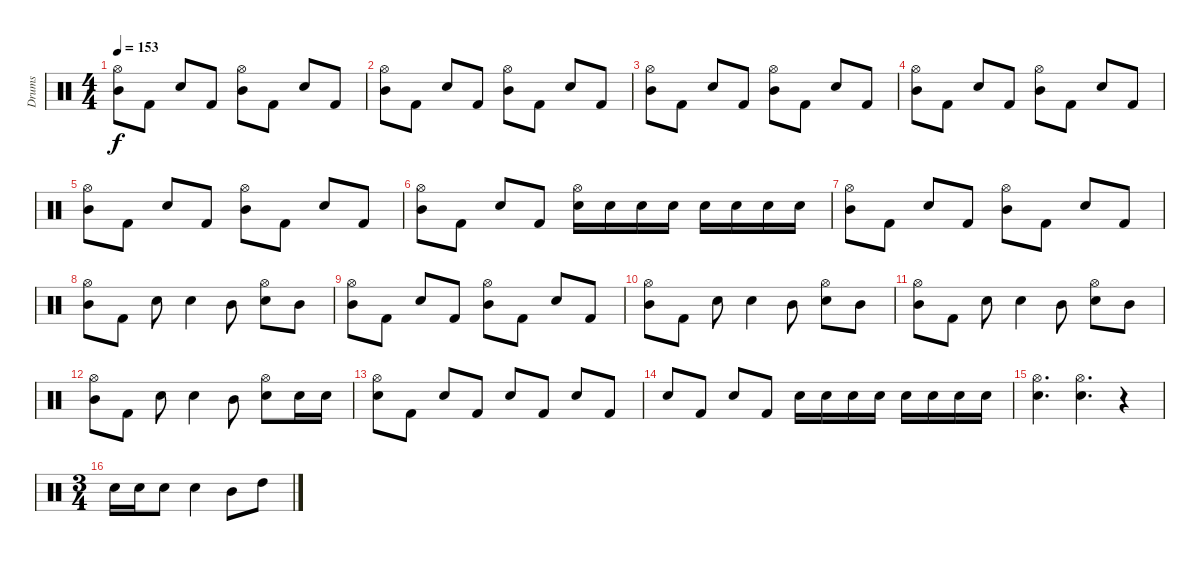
\track ("Drums" "Drums") {instrument percussion}
\staff {score}
\articulation defaults
\ts (4 4)
\tempo 153
\clef neutral
\ks c
("Hi-Hat (open)" "Mid Tom (hit)").8{dy f} "Kick (hit) 2".8 "Electric Snare (hit)".8 "Kick (hit) 2".8 ("Hi-Hat (open)" "Mid Tom (hit)").8 "Kick (hit) 2".8 "Electric Snare (hit)".8 "Kick (hit) 2".8 |
("Hi-Hat (open)" "Mid Tom (hit)").8 "Kick (hit) 2".8 "Electric Snare (hit)".8 "Kick (hit) 2".8 ("Hi-Hat (open)" "Mid Tom (hit)").8 "Kick (hit) 2".8 "Electric Snare (hit)".8 "Kick (hit) 2".8 |
("Hi-Hat (open)" "Mid Tom (hit)").8 "Kick (hit) 2".8 "Electric Snare (hit)".8 "Kick (hit) 2".8 ("Hi-Hat (open)" "Mid Tom (hit)").8 "Kick (hit) 2".8 "Electric Snare (hit)".8 "Kick (hit) 2".8 |
("Hi-Hat (open)" "Mid Tom (hit)").8 "Kick (hit) 2".8 "Electric Snare (hit)".8 "Kick (hit) 2".8 ("Hi-Hat (open)" "Mid Tom (hit)").8 "Kick (hit) 2".8 "Electric Snare (hit)".8 "Kick (hit) 2".8 |
("Hi-Hat (open)" "Mid Tom (hit)").8 "Kick (hit) 2".8 "Electric Snare (hit)".8 "Kick (hit) 2".8 ("Hi-Hat (open)" "Mid Tom (hit)").8 "Kick (hit) 2".8 "Electric Snare (hit)".8 "Kick (hit) 2".8 |
("Hi-Hat (open)" "Mid Tom (hit)").8 "Kick (hit) 2".8 "Electric Snare (hit)".8 "Kick (hit) 2".8 ("Hi-Hat (open)" "Electric Snare (hit)").16 "Electric Snare (hit)".16 "Electric Snare (hit)".16 "Electric Snare (hit)".16 "Electric Snare (hit)".16 "Electric Snare (hit)".16 "Electric Snare (hit)".16 "Electric Snare (hit)".16 |
("Hi-Hat (open)" "Mid Tom (hit)").8 "Kick (hit) 2".8 "Electric Snare (hit)".8 "Kick (hit) 2".8 ("Hi-Hat (open)" "Mid Tom (hit)").8 "Kick (hit) 2".8 "Electric Snare (hit)".8 "Kick (hit) 2".8 |
("Hi-Hat (open)" "Mid Tom (hit)").8 "Kick (hit) 2".8 "Electric Snare (hit)".8 "Electric Snare (hit)".4 "Mid Tom (hit)".8 ("Hi-Hat (open)" "Electric Snare (hit)").8 "Mid Tom (hit)".8 |
("Hi-Hat (open)" "Mid Tom (hit)").8 "Kick (hit) 2".8 "Electric Snare (hit)".8 "Kick (hit) 2".8 ("Hi-Hat (open)" "Mid Tom (hit)").8 "Kick (hit) 2".8 "Electric Snare (hit)".8 "Kick (hit) 2".8 |
("Hi-Hat (open)" "Mid Tom (hit)").8 "Kick (hit) 2".8 "Electric Snare (hit)".8 "Electric Snare (hit)".4 "Mid Tom (hit)".8 ("Hi-Hat (open)" "Electric Snare (hit)").8 "Mid Tom (hit)".8 |
("Hi-Hat (open)" "Mid Tom (hit)").8 "Kick (hit) 2".8 "Electric Snare (hit)".8 "Electric Snare (hit)".4 "Mid Tom (hit)".8 ("Hi-Hat (open)" "Electric Snare (hit)").8 "Mid Tom (hit)".8 |
("Hi-Hat (open)" "Mid Tom (hit)").8 "Kick (hit) 2".8 "Electric Snare (hit)".8 "Electric Snare (hit)".4 "Mid Tom (hit)".8 ("Hi-Hat (open)" "Electric Snare (hit)").8 "Electric Snare (hit)".16 "Electric Snare (hit)".16 |
("Hi-Hat (open)" "Electric Snare (hit)").8 "Kick (hit) 2".8 "Electric Snare (hit)".8 "Kick (hit) 2".8 "Electric Snare (hit)".8 "Kick (hit) 2".8 "Electric Snare (hit)".8 "Kick (hit) 2".8 |
"Electric Snare (hit)".8 "Kick (hit) 2".8 "Electric Snare (hit)".8 "Kick (hit) 2".8 "Electric Snare (hit)".16 "Electric Snare (hit)".16 "Electric Snare (hit)".16 "Electric Snare (hit)".16 "Electric Snare (hit)".16 "Electric Snare (hit)".16 "Electric Snare (hit)".16 "Electric Snare (hit)".16 |
("Hi-Hat (open)" "Electric Snare (hit)").4{d} ("Electric Snare (hit)" "Hi-Hat (open)").4{d} r.4 |
\ts (3 4)
"Electric Snare (hit)".16 "Electric Snare (hit)".16 "Electric Snare (hit)".8 "Electric Snare (hit)".4 "Mid Tom (hit)".8 "High Tom (hit)".8
